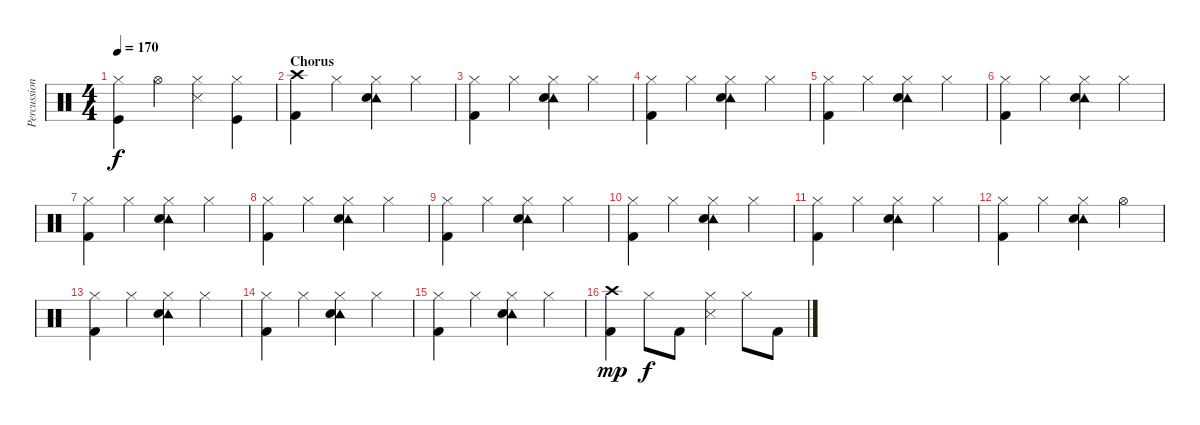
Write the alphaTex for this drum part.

\track ("Percussion" "Percussion") {instrument percussion}
\staff {score}
\articulation defaults
\ts (4 4)
\tempo 170
\clef neutral
\ks c
("Hi-Hat (closed)" "Kick (hit)").4{dy f} "Hi-Hat (open)".4 ("Hi-Hat (closed)" "Snare (side stick) 3").4 ("Hi-Hat (closed)" "Kick (hit)").4 |
\section ("" "Chorus")
("Crash high (hit)" "Kick (hit) 2").4 "Hi-Hat (closed)".4 ("Tambourine (hit)" "Hi-Hat (closed)" "Electric Snare (hit)").4 "Hi-Hat (closed)".4 |
("Hi-Hat (closed)" "Kick (hit) 2").4 "Hi-Hat (closed)".4 ("Tambourine (hit)" "Hi-Hat (closed)" "Electric Snare (hit)").4 "Hi-Hat (closed)".4 |
("Hi-Hat (closed)" "Kick (hit) 2").4 "Hi-Hat (closed)".4 ("Tambourine (hit)" "Hi-Hat (closed)" "Electric Snare (hit)").4 "Hi-Hat (closed)".4 |
("Hi-Hat (closed)" "Kick (hit) 2").4 "Hi-Hat (closed)".4 ("Tambourine (hit)" "Hi-Hat (closed)" "Electric Snare (hit)").4 "Hi-Hat (closed)".4 |
("Hi-Hat (closed)" "Kick (hit) 2").4 "Hi-Hat (closed)".4 ("Tambourine (hit)" "Hi-Hat (closed)" "Electric Snare (hit)").4 "Hi-Hat (closed)".4 |
("Hi-Hat (closed)" "Kick (hit) 2").4 "Hi-Hat (closed)".4 ("Tambourine (hit)" "Hi-Hat (closed)" "Electric Snare (hit)").4 "Hi-Hat (closed)".4 |
("Hi-Hat (closed)" "Kick (hit) 2").4 "Hi-Hat (closed)".4 ("Tambourine (hit)" "Hi-Hat (closed)" "Electric Snare (hit)").4 "Hi-Hat (closed)".4 |
("Hi-Hat (closed)" "Kick (hit) 2").4 "Hi-Hat (closed)".4 ("Tambourine (hit)" "Hi-Hat (closed)" "Electric Snare (hit)").4 "Hi-Hat (closed)".4 |
("Hi-Hat (closed)" "Kick (hit) 2").4 "Hi-Hat (closed)".4 ("Tambourine (hit)" "Hi-Hat (closed)" "Electric Snare (hit)").4 "Hi-Hat (closed)".4 |
("Hi-Hat (closed)" "Kick (hit) 2").4 "Hi-Hat (closed)".4 ("Tambourine (hit)" "Hi-Hat (closed)" "Electric Snare (hit)").4 "Hi-Hat (closed)".4 |
("Hi-Hat (closed)" "Kick (hit) 2").4 "Hi-Hat (closed)".4 ("Tambourine (hit)" "Hi-Hat (closed)" "Electric Snare (hit)").4 "Hi-Hat (open)".4 |
("Hi-Hat (closed)" "Kick (hit) 2").4 "Hi-Hat (closed)".4 ("Tambourine (hit)" "Hi-Hat (closed)" "Electric Snare (hit)").4 "Hi-Hat (closed)".4 |
("Hi-Hat (closed)" "Kick (hit) 2").4 "Hi-Hat (closed)".4 ("Tambourine (hit)" "Hi-Hat (closed)" "Electric Snare (hit)").4 "Hi-Hat (closed)".4 |
("Hi-Hat (closed)" "Kick (hit) 2").4 "Hi-Hat (closed)".4 ("Tambourine (hit)" "Hi-Hat (closed)" "Electric Snare (hit)").4 "Hi-Hat (closed)".4 |
("Crash high (hit)" "Kick (hit) 2").4{dy mp} "Hi-Hat (closed)".8{dy f} "Kick (hit) 2".8 ("Hi-Hat (closed)" "Snare (side stick) 3").4 "Hi-Hat (closed)".8 "Kick (hit) 2".8
